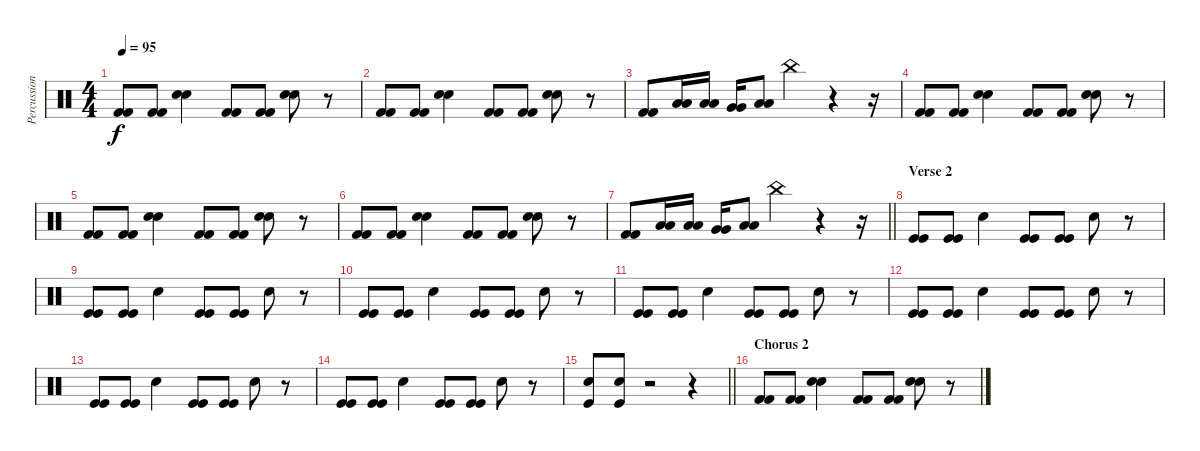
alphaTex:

\track ("Percussion" "Percussion") {instrument percussion}
\staff {score}
\articulation defaults
\ts (4 4)
\tempo 95
\clef neutral
\ks c
("Kick (hit) 2" "Kick (hit) 2").8{dy f} ("Kick (hit) 2" "Kick (hit) 2").8 ("Electric Snare (hit)" "Electric Snare (hit)").4 ("Kick (hit) 2" "Kick (hit) 2").8 ("Kick (hit) 2" "Kick (hit) 2").8 ("Electric Snare (hit)" "Electric Snare (hit)").8 r.8 |
("Kick (hit) 2" "Kick (hit) 2").8 ("Kick (hit) 2" "Kick (hit) 2").8 ("Electric Snare (hit)" "Electric Snare (hit)").4 ("Kick (hit) 2" "Kick (hit) 2").8 ("Kick (hit) 2" "Kick (hit) 2").8 ("Electric Snare (hit)" "Electric Snare (hit)").8 r.8 |
("Kick (hit) 2" "Kick (hit) 2").8 ("Low Floor Tom (hit)" "Low Floor Tom (hit)").16 ("Low Floor Tom (hit)" "Low Floor Tom (hit)").16 ("Very Low Tom (hit)" "Very Low Tom (hit)").16 ("Low Floor Tom (hit)" "Low Floor Tom (hit)").8 "China (hit)".4 r.4 r.16 |
("Kick (hit) 2" "Kick (hit) 2").8 ("Kick (hit) 2" "Kick (hit) 2").8 ("Electric Snare (hit)" "Electric Snare (hit)").4 ("Kick (hit) 2" "Kick (hit) 2").8 ("Kick (hit) 2" "Kick (hit) 2").8 ("Electric Snare (hit)" "Electric Snare (hit)").8 r.8 |
("Kick (hit) 2" "Kick (hit) 2").8 ("Kick (hit) 2" "Kick (hit) 2").8 ("Electric Snare (hit)" "Electric Snare (hit)").4 ("Kick (hit) 2" "Kick (hit) 2").8 ("Kick (hit) 2" "Kick (hit) 2").8 ("Electric Snare (hit)" "Electric Snare (hit)").8 r.8 |
("Kick (hit) 2" "Kick (hit) 2").8 ("Kick (hit) 2" "Kick (hit) 2").8 ("Electric Snare (hit)" "Electric Snare (hit)").4 ("Kick (hit) 2" "Kick (hit) 2").8 ("Kick (hit) 2" "Kick (hit) 2").8 ("Electric Snare (hit)" "Electric Snare (hit)").8 r.8 |
\barLineRight lightlight
("Kick (hit) 2" "Kick (hit) 2").8 ("Low Floor Tom (hit)" "Low Floor Tom (hit)").16 ("Low Floor Tom (hit)" "Low Floor Tom (hit)").16 ("Very Low Tom (hit)" "Very Low Tom (hit)").16 ("Low Floor Tom (hit)" "Low Floor Tom (hit)").8 "China (hit)".4 r.4 r.16 |
\section ("" "Verse 2")
("Kick (hit)" "Kick (hit)").8 ("Kick (hit)" "Kick (hit)").8 "Snare (hit) 2".4 ("Kick (hit)" "Kick (hit)").8 ("Kick (hit)" "Kick (hit)").8 "Snare (hit) 2".8 r.8 |
("Kick (hit)" "Kick (hit)").8 ("Kick (hit)" "Kick (hit)").8 "Snare (hit) 2".4 ("Kick (hit)" "Kick (hit)").8 ("Kick (hit)" "Kick (hit)").8 "Snare (hit) 2".8 r.8 |
("Kick (hit)" "Kick (hit)").8 ("Kick (hit)" "Kick (hit)").8 "Snare (hit) 2".4 ("Kick (hit)" "Kick (hit)").8 ("Kick (hit)" "Kick (hit)").8 "Snare (hit) 2".8 r.8 |
("Kick (hit)" "Kick (hit)").8 ("Kick (hit)" "Kick (hit)").8 "Snare (hit) 2".4 ("Kick (hit)" "Kick (hit)").8 ("Kick (hit)" "Kick (hit)").8 "Snare (hit) 2".8 r.8 |
("Kick (hit)" "Kick (hit)").8 ("Kick (hit)" "Kick (hit)").8 "Snare (hit) 2".4 ("Kick (hit)" "Kick (hit)").8 ("Kick (hit)" "Kick (hit)").8 "Snare (hit) 2".8 r.8 |
("Kick (hit)" "Kick (hit)").8 ("Kick (hit)" "Kick (hit)").8 "Snare (hit) 2".4 ("Kick (hit)" "Kick (hit)").8 ("Kick (hit)" "Kick (hit)").8 "Snare (hit) 2".8 r.8 |
("Kick (hit)" "Kick (hit)").8 ("Kick (hit)" "Kick (hit)").8 "Snare (hit) 2".4 ("Kick (hit)" "Kick (hit)").8 ("Kick (hit)" "Kick (hit)").8 "Snare (hit) 2".8 r.8 |
\barLineRight lightlight
("Kick (hit)" "Snare (hit) 2").8 ("Kick (hit)" "Snare (hit) 2").8 r.2 r.4 |
\section ("" "Chorus 2")
("Kick (hit) 2" "Kick (hit) 2").8 ("Kick (hit) 2" "Kick (hit) 2").8 ("Electric Snare (hit)" "Electric Snare (hit)").4 ("Kick (hit) 2" "Kick (hit) 2").8 ("Kick (hit) 2" "Kick (hit) 2").8 ("Electric Snare (hit)" "Electric Snare (hit)").8 r.8
